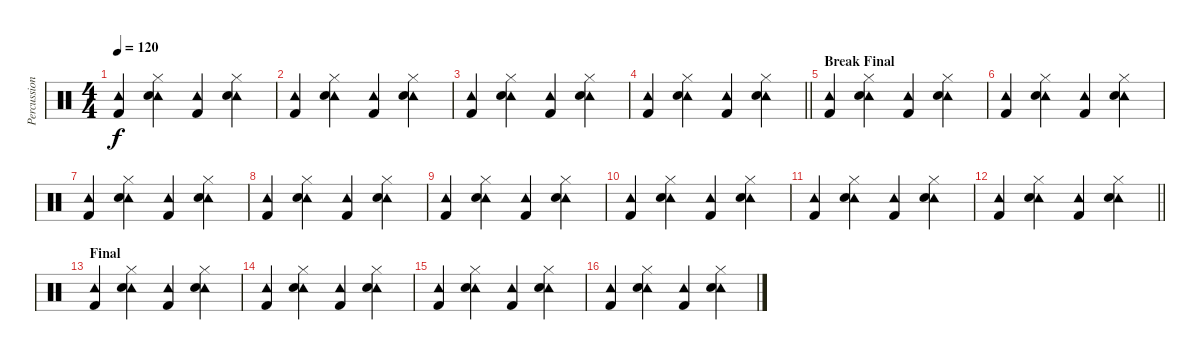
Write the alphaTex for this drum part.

\track ("Percussions" "Percussion") {instrument percussion}
\staff {score}
\articulation defaults
\ts (4 4)
\tempo 120
\clef neutral
\ks c
("Tambourine (hit)" "Kick (hit) 2").4{dy f} ("Tambourine (hit)" "Hi-Hat (closed)" "Snare (hit) 2").4 ("Tambourine (hit)" "Kick (hit) 2").4 ("Tambourine (hit)" "Hi-Hat (closed)" "Snare (hit) 2").4 |
("Tambourine (hit)" "Kick (hit) 2").4 ("Tambourine (hit)" "Hi-Hat (closed)" "Snare (hit) 2").4 ("Tambourine (hit)" "Kick (hit) 2").4 ("Tambourine (hit)" "Hi-Hat (closed)" "Snare (hit) 2").4 |
("Tambourine (hit)" "Kick (hit) 2").4 ("Tambourine (hit)" "Hi-Hat (closed)" "Snare (hit) 2").4 ("Tambourine (hit)" "Kick (hit) 2").4 ("Tambourine (hit)" "Hi-Hat (closed)" "Snare (hit) 2").4 |
\barLineRight lightlight
("Tambourine (hit)" "Kick (hit) 2").4 ("Tambourine (hit)" "Hi-Hat (closed)" "Snare (hit) 2").4 ("Tambourine (hit)" "Kick (hit) 2").4 ("Tambourine (hit)" "Hi-Hat (closed)" "Snare (hit) 2").4 |
\section ("" "Break Final")
("Tambourine (hit)" "Kick (hit) 2").4 ("Tambourine (hit)" "Hi-Hat (closed)" "Snare (hit) 2").4 ("Tambourine (hit)" "Kick (hit) 2").4 ("Tambourine (hit)" "Hi-Hat (closed)" "Snare (hit) 2").4 |
("Tambourine (hit)" "Kick (hit) 2").4 ("Tambourine (hit)" "Hi-Hat (closed)" "Snare (hit) 2").4 ("Tambourine (hit)" "Kick (hit) 2").4 ("Tambourine (hit)" "Hi-Hat (closed)" "Snare (hit) 2").4 |
("Tambourine (hit)" "Kick (hit) 2").4 ("Tambourine (hit)" "Hi-Hat (closed)" "Snare (hit) 2").4 ("Tambourine (hit)" "Kick (hit) 2").4 ("Tambourine (hit)" "Hi-Hat (closed)" "Snare (hit) 2").4 |
("Tambourine (hit)" "Kick (hit) 2").4 ("Tambourine (hit)" "Hi-Hat (closed)" "Snare (hit) 2").4 ("Tambourine (hit)" "Kick (hit) 2").4 ("Tambourine (hit)" "Hi-Hat (closed)" "Snare (hit) 2").4 |
("Tambourine (hit)" "Kick (hit) 2").4 ("Tambourine (hit)" "Hi-Hat (closed)" "Snare (hit) 2").4 ("Tambourine (hit)" "Kick (hit) 2").4 ("Tambourine (hit)" "Hi-Hat (closed)" "Snare (hit) 2").4 |
("Tambourine (hit)" "Kick (hit) 2").4 ("Tambourine (hit)" "Hi-Hat (closed)" "Snare (hit) 2").4 ("Tambourine (hit)" "Kick (hit) 2").4 ("Tambourine (hit)" "Hi-Hat (closed)" "Snare (hit) 2").4 |
("Tambourine (hit)" "Kick (hit) 2").4 ("Tambourine (hit)" "Hi-Hat (closed)" "Snare (hit) 2").4 ("Tambourine (hit)" "Kick (hit) 2").4 ("Tambourine (hit)" "Hi-Hat (closed)" "Snare (hit) 2").4 |
\barLineRight lightlight
("Tambourine (hit)" "Kick (hit) 2").4 ("Tambourine (hit)" "Hi-Hat (closed)" "Snare (hit) 2").4 ("Tambourine (hit)" "Kick (hit) 2").4 ("Tambourine (hit)" "Hi-Hat (closed)" "Snare (hit) 2").4 |
\section ("" "Final")
("Tambourine (hit)" "Kick (hit) 2").4 ("Tambourine (hit)" "Hi-Hat (closed)" "Snare (hit) 2").4 ("Tambourine (hit)" "Kick (hit) 2").4 ("Tambourine (hit)" "Hi-Hat (closed)" "Snare (hit) 2").4 |
("Tambourine (hit)" "Kick (hit) 2").4 ("Tambourine (hit)" "Hi-Hat (closed)" "Snare (hit) 2").4 ("Tambourine (hit)" "Kick (hit) 2").4 ("Tambourine (hit)" "Hi-Hat (closed)" "Snare (hit) 2").4 |
("Tambourine (hit)" "Kick (hit) 2").4 ("Tambourine (hit)" "Hi-Hat (closed)" "Snare (hit) 2").4 ("Tambourine (hit)" "Kick (hit) 2").4 ("Tambourine (hit)" "Hi-Hat (closed)" "Snare (hit) 2").4 |
("Tambourine (hit)" "Kick (hit) 2").4 ("Tambourine (hit)" "Hi-Hat (closed)" "Snare (hit) 2").4 ("Tambourine (hit)" "Kick (hit) 2").4 ("Tambourine (hit)" "Hi-Hat (closed)" "Snare (hit) 2").4
